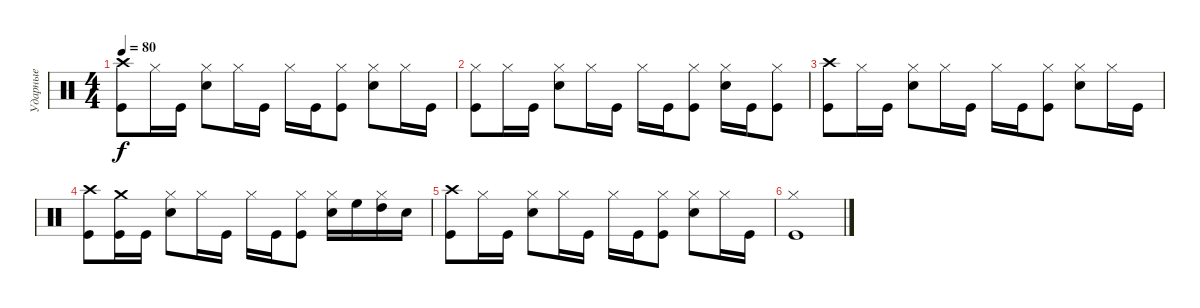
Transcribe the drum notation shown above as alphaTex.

\track ("Ударные" "Ударные") {instrument percussion}
\staff {score}
\articulation defaults
\ts (4 4)
\tempo 80
\clef neutral
\ks c
("Crash high (hit)" "Kick (hit)").8{dy f} "Hi-Hat (closed)".16 "Kick (hit)".16 ("Hi-Hat (closed)" "Snare (hit) 2").8 "Hi-Hat (closed)".16 "Kick (hit)".16 "Hi-Hat (closed)".16 "Kick (hit)".16 ("Hi-Hat (closed)" "Kick (hit)").8 ("Hi-Hat (closed)" "Snare (hit) 2").8 "Hi-Hat (closed)".16 "Kick (hit)".16 |
("Hi-Hat (closed)" "Kick (hit)").8 "Hi-Hat (closed)".16 "Kick (hit)".16 ("Hi-Hat (closed)" "Snare (hit) 2").8 "Hi-Hat (closed)".16 "Kick (hit)".16 "Hi-Hat (closed)".16 "Kick (hit)".16 ("Hi-Hat (closed)" "Kick (hit)").8 ("Hi-Hat (closed)" "Snare (hit) 2").16 "Kick (hit)".16 ("Hi-Hat (closed)" "Kick (hit)").8 |
("Crash high (hit)" "Kick (hit)").8 "Hi-Hat (closed)".16 "Kick (hit)".16 ("Hi-Hat (closed)" "Snare (hit) 2").8 "Hi-Hat (closed)".16 "Kick (hit)".16 "Hi-Hat (closed)".16 "Kick (hit)".16 ("Hi-Hat (closed)" "Kick (hit)").8 ("Hi-Hat (closed)" "Snare (hit) 2").8 "Hi-Hat (closed)".16 "Kick (hit)".16 |
("Crash high (hit)" "Kick (hit)").8 ("Crash medium (hit)" "Kick (hit)").16 "Kick (hit)".16 ("Hi-Hat (closed)" "Snare (hit) 2").8 "Hi-Hat (closed)".16 "Kick (hit)".16 "Hi-Hat (closed)".16 "Kick (hit)".16 ("Hi-Hat (closed)" "Kick (hit)").8 ("Hi-Hat (closed)" "Snare (hit) 2").16 "High Floor Tom (hit)".16 ("Hi-Hat (closed)" "High Tom (hit)").16 "Snare (hit) 2".16 |
("Crash high (hit)" "Kick (hit)").8 "Hi-Hat (closed)".16 "Kick (hit)".16 ("Hi-Hat (closed)" "Snare (hit) 2").8 "Hi-Hat (closed)".16 "Kick (hit)".16 "Hi-Hat (closed)".16 "Kick (hit)".16 ("Hi-Hat (closed)" "Kick (hit)").8 ("Hi-Hat (closed)" "Snare (hit) 2").8 "Hi-Hat (closed)".16 "Kick (hit)".16 |
("Hi-Hat (closed)" "Kick (hit)").1
